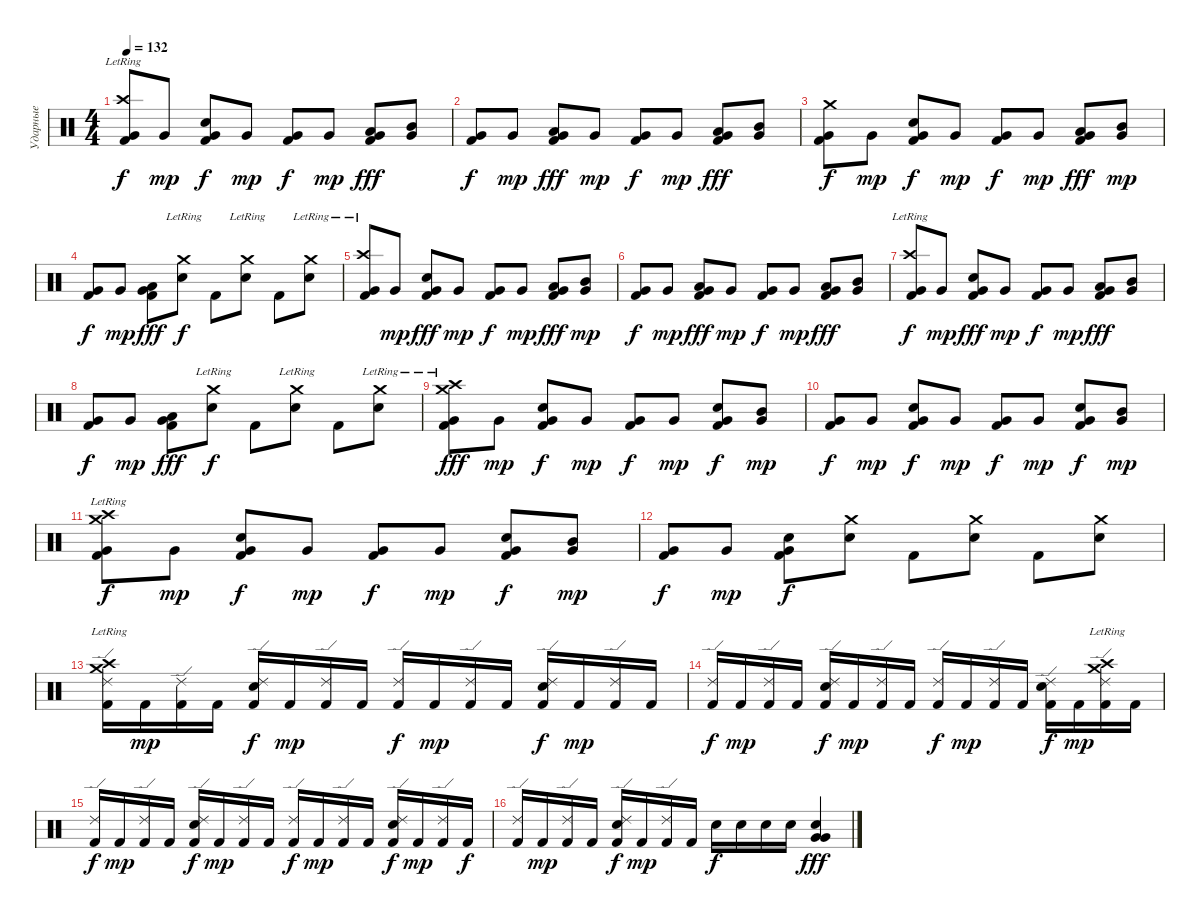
\track ("Ударные" "Ударные") {instrument percussion}
\staff {score}
\articulation defaults
\ts (4 4)
\tempo 132
\clef neutral
\ks c
("Very Low Tom (hit)" "Crash high (hit)"{lr} "Kick (hit) 2").8{dy f} "Very Low Tom (hit)".8{dy mp} ("Very Low Tom (hit)" "Electric Snare (hit)" "Kick (hit) 2").8{dy f} "Very Low Tom (hit)".8{dy mp} ("Very Low Tom (hit)" "Kick (hit) 2").8{dy f} "Very Low Tom (hit)".8{dy mp} ("Very Low Tom (hit)" "Low Tom (hit)" "Kick (hit) 2").8{dy fff} ("Very Low Tom (hit)" "Mid Tom (hit)").8 |
("Very Low Tom (hit)" "Kick (hit) 2").8{dy f} "Very Low Tom (hit)".8{dy mp} ("Very Low Tom (hit)" "Low Tom (hit)" "Kick (hit) 2").8{dy fff} "Very Low Tom (hit)".8{dy mp} ("Very Low Tom (hit)" "Kick (hit) 2").8{dy f} "Very Low Tom (hit)".8{dy mp} ("Very Low Tom (hit)" "Low Tom (hit)" "Kick (hit) 2").8{dy fff} ("Very Low Tom (hit)" "Mid Tom (hit)").8 |
("Very Low Tom (hit)" "Crash medium (hit)" "Kick (hit) 2").8{dy f} "Very Low Tom (hit)".8{dy mp} ("Very Low Tom (hit)" "Electric Snare (hit)" "Kick (hit) 2").8{dy f} "Very Low Tom (hit)".8{dy mp} ("Very Low Tom (hit)" "Kick (hit) 2").8{dy f} "Very Low Tom (hit)".8{dy mp} ("Very Low Tom (hit)" "Low Tom (hit)" "Kick (hit) 2").8{dy fff} ("Very Low Tom (hit)" "Mid Tom (hit)").8{dy mp} |
("Very Low Tom (hit)" "Kick (hit) 2").8{dy f} "Very Low Tom (hit)".8{dy mp} ("Very Low Tom (hit)" "Low Tom (hit)" "Kick (hit) 2").8{dy fff} ("Crash medium (hit)"{lr} "Electric Snare (hit)").8{dy f} "Kick (hit) 2".8 ("Crash medium (hit)"{lr} "Electric Snare (hit)").8 "Kick (hit) 2".8 ("Crash medium (hit)"{lr} "Electric Snare (hit)").8 |
("Very Low Tom (hit)" "Crash high (hit)"{lr} "Kick (hit) 2").8 "Very Low Tom (hit)".8{dy mp} ("Very Low Tom (hit)" "Electric Snare (hit)" "Kick (hit) 2").8{dy fff} "Very Low Tom (hit)".8{dy mp} ("Very Low Tom (hit)" "Kick (hit) 2").8{dy f} "Very Low Tom (hit)".8{dy mp} ("Very Low Tom (hit)" "Low Tom (hit)" "Kick (hit) 2").8{dy fff} ("Very Low Tom (hit)" "Mid Tom (hit)").8{dy mp} |
("Very Low Tom (hit)" "Kick (hit) 2").8{dy f} "Very Low Tom (hit)".8{dy mp} ("Very Low Tom (hit)" "Low Tom (hit)" "Kick (hit) 2").8{dy fff} "Very Low Tom (hit)".8{dy mp} ("Very Low Tom (hit)" "Kick (hit) 2").8{dy f} "Very Low Tom (hit)".8{dy mp} ("Very Low Tom (hit)" "Low Tom (hit)" "Kick (hit) 2").8{dy fff} ("Very Low Tom (hit)" "Mid Tom (hit)").8 |
("Very Low Tom (hit)" "Crash high (hit)"{lr} "Kick (hit) 2").8{dy f} "Very Low Tom (hit)".8{dy mp} ("Very Low Tom (hit)" "Electric Snare (hit)" "Kick (hit) 2").8{dy fff} "Very Low Tom (hit)".8{dy mp} ("Very Low Tom (hit)" "Kick (hit) 2").8{dy f} "Very Low Tom (hit)".8{dy mp} ("Very Low Tom (hit)" "Low Tom (hit)" "Kick (hit) 2").8{dy fff} ("Very Low Tom (hit)" "Mid Tom (hit)").8 |
("Very Low Tom (hit)" "Kick (hit) 2").8{dy f} "Very Low Tom (hit)".8{dy mp} ("Very Low Tom (hit)" "Low Tom (hit)" "Kick (hit) 2").8{dy fff} ("Crash medium (hit)"{lr} "Electric Snare (hit)").8{dy f} "Kick (hit) 2".8 ("Crash medium (hit)"{lr} "Electric Snare (hit)").8 "Kick (hit) 2".8 ("Crash medium (hit)"{lr} "Electric Snare (hit)").8 |
("Crash medium (hit)" "Crash high (hit)"{lr} "Kick (hit) 2" "Very Low Tom (hit)").8{dy fff} "Very Low Tom (hit)".8{dy mp} ("Electric Snare (hit)" "Kick (hit) 2" "Very Low Tom (hit)").8{dy f} "Very Low Tom (hit)".8{dy mp} ("Kick (hit) 2" "Very Low Tom (hit)").8{dy f} "Very Low Tom (hit)".8{dy mp} ("Electric Snare (hit)" "Kick (hit) 2" "Very Low Tom (hit)").8{dy f} ("Mid Tom (hit)" "Very Low Tom (hit)").8{dy mp} |
("Kick (hit) 2" "Very Low Tom (hit)").8{dy f} "Very Low Tom (hit)".8{dy mp} ("Electric Snare (hit)" "Kick (hit) 2" "Very Low Tom (hit)").8{dy f} "Very Low Tom (hit)".8{dy mp} ("Kick (hit) 2" "Very Low Tom (hit)").8{dy f} "Very Low Tom (hit)".8{dy mp} ("Electric Snare (hit)" "Kick (hit) 2" "Very Low Tom (hit)").8{dy f} ("Mid Tom (hit)" "Very Low Tom (hit)").8{dy mp} |
("Crash high (hit)"{lr} "Crash medium (hit)"{lr} "Kick (hit) 2" "Very Low Tom (hit)").8{dy f} "Very Low Tom (hit)".8{dy mp} ("Electric Snare (hit)" "Kick (hit) 2" "Very Low Tom (hit)").8{dy f} "Very Low Tom (hit)".8{dy mp} ("Kick (hit) 2" "Very Low Tom (hit)").8{dy f} "Very Low Tom (hit)".8{dy mp} ("Electric Snare (hit)" "Kick (hit) 2" "Very Low Tom (hit)").8{dy f} ("Mid Tom (hit)" "Very Low Tom (hit)").8{dy mp} |
("Kick (hit) 2" "Very Low Tom (hit)").8{dy f} "Very Low Tom (hit)".8{dy mp} ("Electric Snare (hit)" "Kick (hit) 2" "Very Low Tom (hit)").8{dy f} ("Crash medium (hit)" "Electric Snare (hit)").8 "Kick (hit) 2".8 ("Crash medium (hit)" "Electric Snare (hit)").8 "Kick (hit) 2".8 ("Crash medium (hit)" "Electric Snare (hit)").8 |
("Crash medium (hit)"{lr} "Crash high (hit)"{lr} "Kick (hit) 2" "Ride (edge) 2").16 "Kick (hit) 2".16{dy mp} ("Kick (hit) 2" "Ride (edge) 2").16 "Kick (hit) 2".16 ("Electric Snare (hit)" "Kick (hit) 2" "Ride (edge) 2").16{dy f} "Kick (hit) 2".16{dy mp} ("Kick (hit) 2" "Ride (edge) 2").16 "Kick (hit) 2".16 ("Kick (hit) 2" "Ride (edge) 2").16{dy f} "Kick (hit) 2".16{dy mp} ("Kick (hit) 2" "Ride (edge) 2").16 "Kick (hit) 2".16 ("Electric Snare (hit)" "Kick (hit) 2" "Ride (edge) 2").16{dy f} "Kick (hit) 2".16{dy mp} ("Kick (hit) 2" "Ride (edge) 2").16 "Kick (hit) 2".16 |
("Kick (hit) 2" "Ride (edge) 2").16{dy f} "Kick (hit) 2".16{dy mp} ("Kick (hit) 2" "Ride (edge) 2").16 "Kick (hit) 2".16 ("Electric Snare (hit)" "Kick (hit) 2" "Ride (edge) 2").16{dy f} "Kick (hit) 2".16{dy mp} ("Kick (hit) 2" "Ride (edge) 2").16 "Kick (hit) 2".16 ("Kick (hit) 2" "Ride (edge) 2").16{dy f} "Kick (hit) 2".16{dy mp} ("Kick (hit) 2" "Ride (edge) 2").16 "Kick (hit) 2".16 ("Electric Snare (hit)" "Kick (hit) 2" "Ride (edge) 2").16{dy f} "Kick (hit) 2".16{dy mp} ("Crash high (hit)"{lr} "Crash medium (hit)"{lr} "Kick (hit) 2" "Ride (edge) 2").16 "Kick (hit) 2".16 |
("Kick (hit) 2" "Ride (edge) 2").16{dy f} "Kick (hit) 2".16{dy mp} ("Kick (hit) 2" "Ride (edge) 2").16 "Kick (hit) 2".16 ("Electric Snare (hit)" "Kick (hit) 2" "Ride (edge) 2").16{dy f} "Kick (hit) 2".16{dy mp} ("Kick (hit) 2" "Ride (edge) 2").16 "Kick (hit) 2".16 ("Kick (hit) 2" "Ride (edge) 2").16{dy f} "Kick (hit) 2".16{dy mp} ("Kick (hit) 2" "Ride (edge) 2").16 "Kick (hit) 2".16 ("Electric Snare (hit)" "Kick (hit) 2" "Ride (edge) 2").16{dy f} "Kick (hit) 2".16{dy mp} ("Kick (hit) 2" "Ride (edge) 2").16 "Kick (hit) 2".16{dy f} |
("Kick (hit) 2" "Ride (edge) 2").16 "Kick (hit) 2".16{dy mp} ("Kick (hit) 2" "Ride (edge) 2").16 "Kick (hit) 2".16 ("Electric Snare (hit)" "Kick (hit) 2" "Ride (edge) 2").16{dy f} "Kick (hit) 2".16{dy mp} ("Kick (hit) 2" "Ride (edge) 2").16 "Kick (hit) 2".16 "Electric Snare (hit)".16{dy f} "Electric Snare (hit)".16 "Electric Snare (hit)".16 "Electric Snare (hit)".16 ("Electric Snare (hit)" "Very Low Tom (hit)" "Very Low Tom (hit)").4{dy fff}
